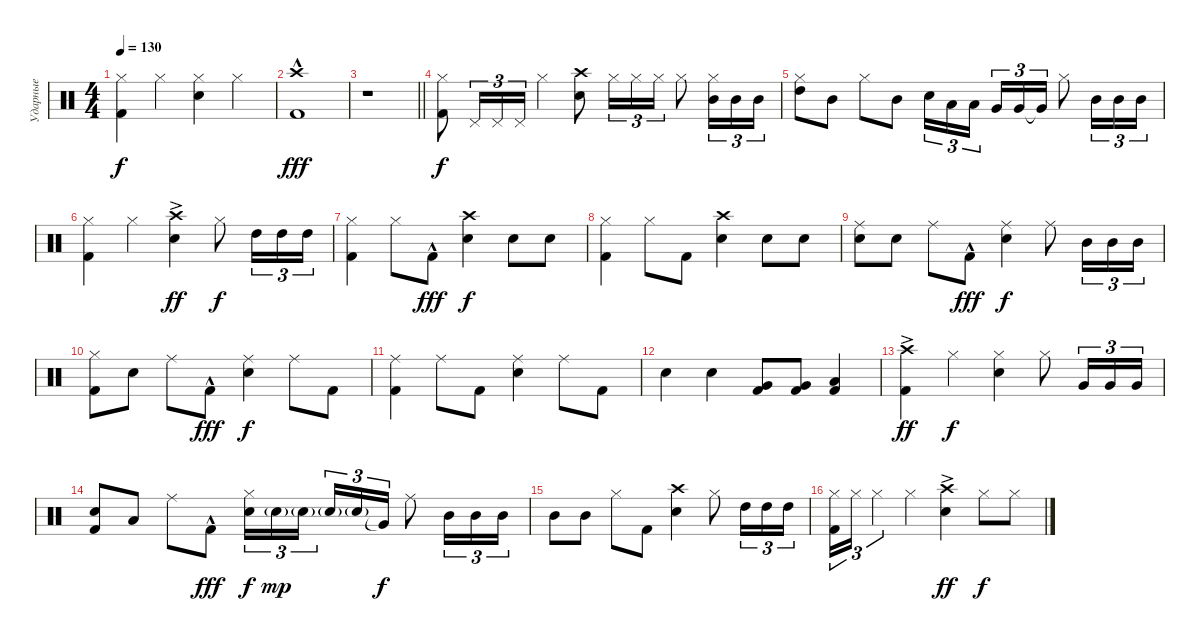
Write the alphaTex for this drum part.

\track ("Ударные" "Ударные") {instrument percussion}
\staff {score}
\articulation defaults
\ts (4 4)
\tempo 130
\clef neutral
\ks c
("Kick (hit) 2" "Hi-Hat (closed)").4{dy f} "Hi-Hat (closed)".4 ("Snare (hit) 2" "Hi-Hat (closed)").4 "Hi-Hat (closed)".4 |
("Kick (hit) 2" "Crash high (hit)"{hac}).1{dy fff} |
\barLineRight lightlight
r.1 |
("Kick (hit) 2" "Hi-Hat (closed)").8{dy f} "Pedal Hi-Hat (hit)".16{tu (3 2)} "Pedal Hi-Hat (hit)".16{tu (3 2)} "Pedal Hi-Hat (hit)".16{tu (3 2)} "Hi-Hat (closed)".4 ("Snare (hit) 2" "Crash high (hit)").8 "Hi-Hat (closed)".16{tu (3 2)} "Hi-Hat (closed)".16{tu (3 2)} "Hi-Hat (closed)".16{tu (3 2)} "Hi-Hat (closed)".8 ("Mid Tom (hit)" "Hi-Hat (closed)").16{tu (3 2)} "Mid Tom (hit)".16{tu (3 2)} "Mid Tom (hit)".16{tu (3 2)} |
("High Tom (hit)" "Hi-Hat (closed)").8 "Mid Tom (hit)".8 "Hi-Hat (closed)".8 "Mid Tom (hit)".8 "Snare (hit) 2".16{tu (3 2)} "Low Tom (hit)".16{tu (3 2)} "Low Tom (hit)".16{tu (3 2) beam splitsecondary} "Very Low Tom (hit)".16{tu (3 2)} "Very Low Tom (hit)".16{tu (3 2)} "Very Low Tom (hit)"{t}.16{tu (3 2)} "Hi-Hat (closed)".8 "Mid Tom (hit)".16{tu (3 2)} "Mid Tom (hit)".16{tu (3 2)} "Mid Tom (hit)".16{tu (3 2)} |
("Kick (hit) 2" "Hi-Hat (closed)").4 "Hi-Hat (closed)".4 ("Snare (hit) 2" "Crash high (hit)"{ac}).4{dy ff} "Hi-Hat (closed)".8{dy f} "High Tom (hit)".16{tu (3 2)} "High Tom (hit)".16{tu (3 2)} "High Tom (hit)".16{tu (3 2)} |
("Kick (hit) 2" "Hi-Hat (closed)").4 "Hi-Hat (closed)".8 "Kick (hit) 2"{hac}.8{dy fff} ("Snare (hit) 2" "Crash high (hit)").4{dy f} "Snare (hit) 2".8 "Snare (hit) 2".8 |
("Kick (hit) 2" "Hi-Hat (closed)").4 "Hi-Hat (closed)".8 "Kick (hit) 2".8 ("Snare (hit) 2" "Crash high (hit)").4 "Snare (hit) 2".8 "Snare (hit) 2".8 |
("Snare (hit) 2" "Ride (middle)").8 "Snare (hit) 2".8 "Ride (middle)".8 "Kick (hit) 2"{hac}.8{dy fff} ("Snare (hit) 2" "Ride (middle)").4{dy f} "Ride (middle)".8 "Mid Tom (hit)".16{tu (3 2)} "Mid Tom (hit)".16{tu (3 2)} "Mid Tom (hit)".16{tu (3 2)} |
("Kick (hit) 2" "Hi-Hat (closed)").8 "Snare (hit) 2".8 "Ride (middle)".8 "Kick (hit) 2"{hac}.8{dy fff} ("Snare (hit) 2" "Ride (middle)").4{dy f} "Ride (middle)".8 "Kick (hit) 2".8 |
("Kick (hit) 2" "Ride (middle)").4 "Ride (middle)".8 "Kick (hit) 2".8 ("Snare (hit) 2" "Ride (middle)").4 "Ride (middle)".8 "Kick (hit) 2".8 |
"Snare (hit) 2".4 "Snare (hit) 2".4 ("Kick (hit) 2" "Very Low Tom (hit)").8 ("Kick (hit) 2" "Very Low Tom (hit)").8 ("Kick (hit) 2" "Low Floor Tom (hit)").4 |
("Kick (hit) 2" "Crash high (hit)"{ac}).4{dy ff} "Hi-Hat (closed)".4{dy f} ("Snare (hit) 2" "Hi-Hat (closed)").4 "Hi-Hat (closed)".8 "Very Low Tom (hit)".16{tu (3 2)} "Very Low Tom (hit)".16{tu (3 2)} "Very Low Tom (hit)".16{tu (3 2)} |
("Kick (hit) 2" "Electric Snare (hit)").8 "Low Tom (hit)".8 "Ride (middle)".8 "Kick (hit) 2"{hac}.8{dy fff} ("Snare (hit) 2" "Hi-Hat (closed)").16{tu (3 2) dy f} "Snare (hit) 2"{g}.16{tu (3 2) dy mp} "Snare (hit) 2"{g}.16{tu (3 2) beam splitsecondary} "Snare (hit) 2"{g}.16{tu (3 2)} "Snare (hit) 2"{g}.16{tu (3 2)} "Very Low Tom (hit)"{t}.16{tu (3 2) dy f} "Ride (middle)".8 "Mid Tom (hit)".16{tu (3 2)} "Mid Tom (hit)".16{tu (3 2)} "Mid Tom (hit)".16{tu (3 2)} |
"Mid Tom (hit)".8 "Mid Tom (hit)".8 "Hi-Hat (closed)".8 "Kick (hit) 2".8 ("Snare (hit) 2" "Crash high (hit)").4 "Hi-Hat (closed)".8 "High Tom (hit)".16{tu (3 2)} "High Tom (hit)".16{tu (3 2)} "High Tom (hit)".16{tu (3 2)} |
("Kick (hit) 2" "Hi-Hat (closed)").16{tu (3 2)} "Hi-Hat (closed)".16{tu (3 2)} "Hi-Hat (closed)".4{tu (3 2)} "Hi-Hat (closed)".4 ("Snare (hit) 2" "Crash high (hit)"{ac}).4{dy ff} "Hi-Hat (closed)".8{dy f} "Hi-Hat (closed)".8
